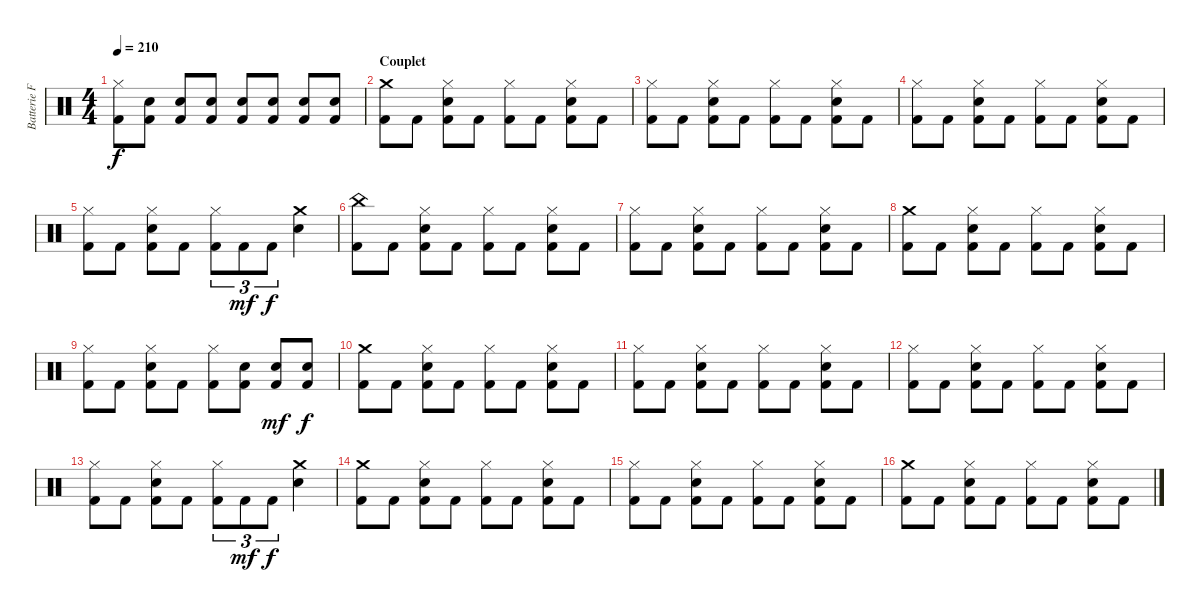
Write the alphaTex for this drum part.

\track ("Batterie Franck" "Batterie F") {instrument percussion}
\staff {score}
\articulation defaults
\ts (4 4)
\tempo 210
\clef neutral
\ks c
("Hi-Hat (closed)" "Kick (hit) 2").8{dy f} ("Snare (hit) 2" "Kick (hit) 2").8 ("Snare (hit) 2" "Kick (hit) 2").8 ("Snare (hit) 2" "Kick (hit) 2").8 ("Snare (hit) 2" "Kick (hit) 2").8 ("Snare (hit) 2" "Kick (hit) 2").8 ("Snare (hit) 2" "Kick (hit) 2").8 ("Snare (hit) 2" "Kick (hit) 2").8 |
\section ("" "Couplet")
("Crash medium (hit)" "Kick (hit) 2").8 "Kick (hit) 2".8 ("Hi-Hat (closed)" "Snare (hit) 2" "Kick (hit) 2").8 "Kick (hit) 2".8 ("Hi-Hat (closed)" "Kick (hit) 2").8 "Kick (hit) 2".8 ("Hi-Hat (closed)" "Snare (hit) 2" "Kick (hit) 2").8 "Kick (hit) 2".8 |
("Hi-Hat (closed)" "Kick (hit) 2").8 "Kick (hit) 2".8 ("Hi-Hat (closed)" "Snare (hit) 2" "Kick (hit) 2").8 "Kick (hit) 2".8 ("Hi-Hat (closed)" "Kick (hit) 2").8 "Kick (hit) 2".8 ("Hi-Hat (closed)" "Snare (hit) 2" "Kick (hit) 2").8 "Kick (hit) 2".8 |
("Hi-Hat (closed)" "Kick (hit) 2").8 "Kick (hit) 2".8 ("Hi-Hat (closed)" "Snare (hit) 2" "Kick (hit) 2").8 "Kick (hit) 2".8 ("Hi-Hat (closed)" "Kick (hit) 2").8 "Kick (hit) 2".8 ("Hi-Hat (closed)" "Snare (hit) 2" "Kick (hit) 2").8 "Kick (hit) 2".8 |
("Hi-Hat (closed)" "Kick (hit) 2").8 "Kick (hit) 2".8 ("Hi-Hat (closed)" "Snare (hit) 2" "Kick (hit) 2").8 "Kick (hit) 2".8 ("Hi-Hat (closed)" "Kick (hit) 2").8{tu (3 2)} "Kick (hit) 2".8{tu (3 2) dy mf} "Kick (hit) 2".8{tu (3 2) dy f} ("Crash medium (hit)" "Snare (hit) 2").4 |
("China (hit)" "Kick (hit) 2").8 "Kick (hit) 2".8 ("Hi-Hat (closed)" "Snare (hit) 2" "Kick (hit) 2").8 "Kick (hit) 2".8 ("Hi-Hat (closed)" "Kick (hit) 2").8 "Kick (hit) 2".8 ("Hi-Hat (closed)" "Snare (hit) 2" "Kick (hit) 2").8 "Kick (hit) 2".8 |
("Hi-Hat (closed)" "Kick (hit) 2").8 "Kick (hit) 2".8 ("Hi-Hat (closed)" "Snare (hit) 2" "Kick (hit) 2").8 "Kick (hit) 2".8 ("Hi-Hat (closed)" "Kick (hit) 2").8 "Kick (hit) 2".8 ("Hi-Hat (closed)" "Snare (hit) 2" "Kick (hit) 2").8 "Kick (hit) 2".8 |
("Crash medium (hit)" "Kick (hit) 2").8 "Kick (hit) 2".8 ("Hi-Hat (closed)" "Snare (hit) 2" "Kick (hit) 2").8 "Kick (hit) 2".8 ("Hi-Hat (closed)" "Kick (hit) 2").8 "Kick (hit) 2".8 ("Hi-Hat (closed)" "Snare (hit) 2" "Kick (hit) 2").8 "Kick (hit) 2".8 |
("Hi-Hat (closed)" "Kick (hit) 2").8 "Kick (hit) 2".8 ("Hi-Hat (closed)" "Snare (hit) 2" "Kick (hit) 2").8 "Kick (hit) 2".8 ("Hi-Hat (closed)" "Kick (hit) 2").8 ("Snare (hit) 2" "Kick (hit) 2").8 ("Snare (hit) 2" "Kick (hit) 2").8{dy mf} ("Snare (hit) 2" "Kick (hit) 2").8{dy f} |
("Crash medium (hit)" "Kick (hit) 2").8 "Kick (hit) 2".8 ("Hi-Hat (closed)" "Snare (hit) 2" "Kick (hit) 2").8 "Kick (hit) 2".8 ("Hi-Hat (closed)" "Kick (hit) 2").8 "Kick (hit) 2".8 ("Hi-Hat (closed)" "Snare (hit) 2" "Kick (hit) 2").8 "Kick (hit) 2".8 |
("Hi-Hat (closed)" "Kick (hit) 2").8 "Kick (hit) 2".8 ("Hi-Hat (closed)" "Snare (hit) 2" "Kick (hit) 2").8 "Kick (hit) 2".8 ("Hi-Hat (closed)" "Kick (hit) 2").8 "Kick (hit) 2".8 ("Hi-Hat (closed)" "Snare (hit) 2" "Kick (hit) 2").8 "Kick (hit) 2".8 |
("Hi-Hat (closed)" "Kick (hit) 2").8 "Kick (hit) 2".8 ("Hi-Hat (closed)" "Snare (hit) 2" "Kick (hit) 2").8 "Kick (hit) 2".8 ("Hi-Hat (closed)" "Kick (hit) 2").8 "Kick (hit) 2".8 ("Hi-Hat (closed)" "Snare (hit) 2" "Kick (hit) 2").8 "Kick (hit) 2".8 |
("Hi-Hat (closed)" "Kick (hit) 2").8 "Kick (hit) 2".8 ("Hi-Hat (closed)" "Snare (hit) 2" "Kick (hit) 2").8 "Kick (hit) 2".8 ("Hi-Hat (closed)" "Kick (hit) 2").8{tu (3 2)} "Kick (hit) 2".8{tu (3 2) dy mf} "Kick (hit) 2".8{tu (3 2) dy f} ("Crash medium (hit)" "Snare (hit) 2").4 |
("Crash medium (hit)" "Kick (hit) 2").8 "Kick (hit) 2".8 ("Hi-Hat (closed)" "Snare (hit) 2" "Kick (hit) 2").8 "Kick (hit) 2".8 ("Hi-Hat (closed)" "Kick (hit) 2").8 "Kick (hit) 2".8 ("Hi-Hat (closed)" "Snare (hit) 2" "Kick (hit) 2").8 "Kick (hit) 2".8 |
("Hi-Hat (closed)" "Kick (hit) 2").8 "Kick (hit) 2".8 ("Hi-Hat (closed)" "Snare (hit) 2" "Kick (hit) 2").8 "Kick (hit) 2".8 ("Hi-Hat (closed)" "Kick (hit) 2").8 "Kick (hit) 2".8 ("Hi-Hat (closed)" "Snare (hit) 2" "Kick (hit) 2").8 "Kick (hit) 2".8 |
("Crash medium (hit)" "Kick (hit) 2").8 "Kick (hit) 2".8 ("Hi-Hat (closed)" "Snare (hit) 2" "Kick (hit) 2").8 "Kick (hit) 2".8 ("Hi-Hat (closed)" "Kick (hit) 2").8 "Kick (hit) 2".8 ("Hi-Hat (closed)" "Snare (hit) 2" "Kick (hit) 2").8 "Kick (hit) 2".8
